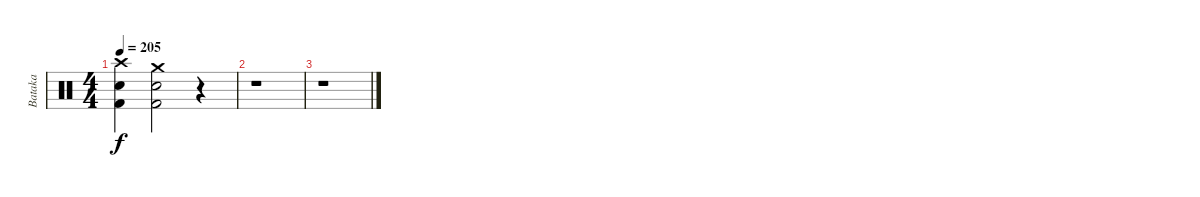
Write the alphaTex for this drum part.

\track ("Bataka" "Bataka") {instrument percussion}
\staff {score}
\articulation defaults
\ts (4 4)
\tempo 205
\clef neutral
\ks c
("Crash high (hit)" "Snare (hit) 2" "Kick (hit) 2").4{dy f} ("Crash medium (hit)" "Snare (hit) 2" "Kick (hit) 2").2 r.4 |
r.1 |
r.1
